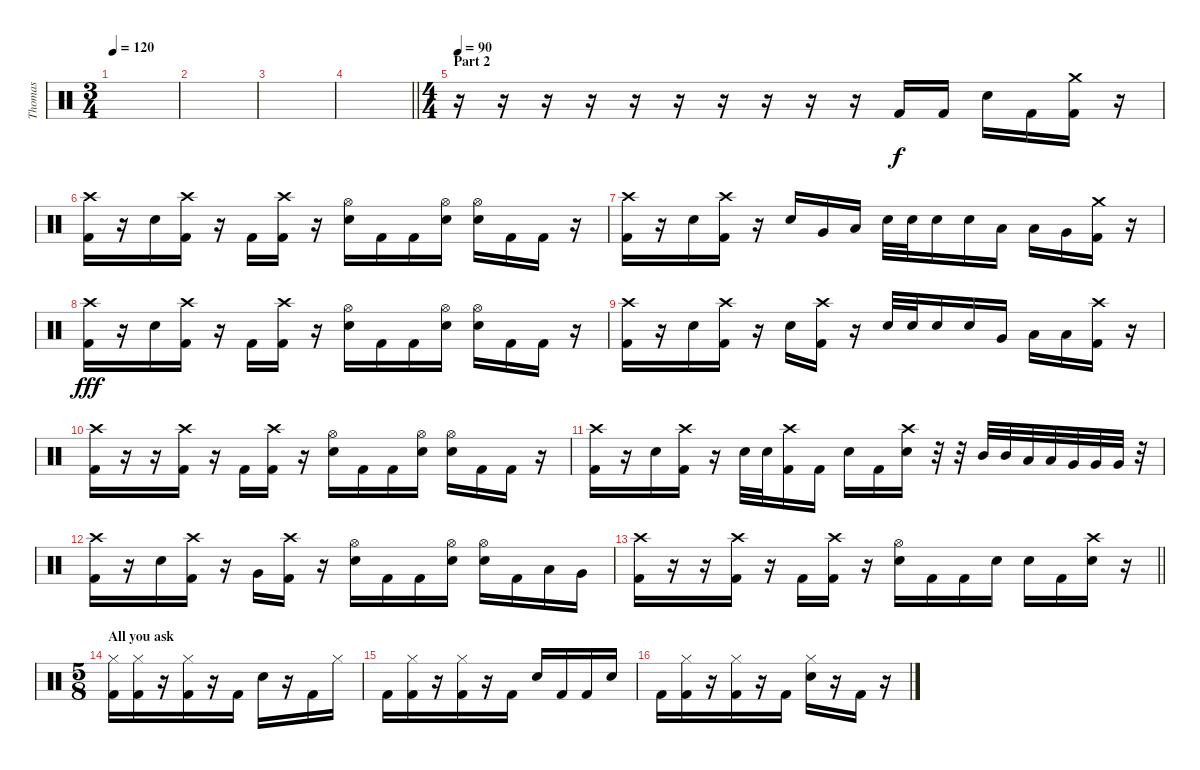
\track ("Thomas " "Thomas ") {instrument percussion}
\staff {score}
\articulation defaults
\ts (3 4)
\tempo 120
\clef neutral
\ks c
|
|
|
\barLineRight lightlight
|
\ts (4 4)
\section ("" "Part 2")
\tempo 90
r.16 r.16 r.16 r.16 r.16 r.16 r.16 r.16 r.16 r.16 "Kick (hit) 2".16 "Kick (hit) 2".16 "Electric Snare (hit)".16 "Kick (hit) 2".16 ("Crash medium (hit)" "Kick (hit) 2").16 r.16 |
("Crash high (hit)" "Kick (hit) 2").16 r.16 "Electric Snare (hit)".16 ("Crash high (hit)" "Kick (hit) 2").16 r.16 "Kick (hit) 2".16 ("Crash high (hit)" "Kick (hit) 2").16 r.16 ("Hi-Hat (open)" "Electric Snare (hit)").16 "Kick (hit) 2".16 "Kick (hit) 2".16 ("Hi-Hat (open)" "Electric Snare (hit)").16 ("Hi-Hat (open)" "Electric Snare (hit)").16 "Kick (hit) 2".16 "Kick (hit) 2".16 r.16 |
("Crash high (hit)" "Kick (hit) 2").16 r.16 "Electric Snare (hit)".16 ("Crash high (hit)" "Kick (hit) 2").16 r.16 "Electric Snare (hit)".16 "Very Low Tom (hit)".16 "Low Tom (hit)".16 "Electric Snare (hit)".32 "Electric Snare (hit)".32 "Electric Snare (hit)".16 "Electric Snare (hit)".16 "Low Tom (hit)".16 "Low Tom (hit)".16 "Very Low Tom (hit)".16 ("Crash medium (hit)" "Kick (hit) 2").16{dy f} r.16 |
("Crash high (hit)" "Kick (hit) 2").16{dy fff} r.16 "Electric Snare (hit)".16 ("Crash high (hit)" "Kick (hit) 2").16 r.16 "Kick (hit) 2".16 ("Crash high (hit)" "Kick (hit) 2").16 r.16 ("Hi-Hat (open)" "Electric Snare (hit)").16 "Kick (hit) 2".16 "Kick (hit) 2".16 ("Hi-Hat (open)" "Electric Snare (hit)").16 ("Hi-Hat (open)" "Electric Snare (hit)").16 "Kick (hit) 2".16 "Kick (hit) 2".16 r.16 |
("Crash high (hit)" "Kick (hit) 2").16 r.16 "Electric Snare (hit)".16 ("Crash high (hit)" "Kick (hit) 2").16 r.16 "Electric Snare (hit)".16 ("Crash high (hit)" "Kick (hit) 2").16 r.16 "Electric Snare (hit)".32 "Electric Snare (hit)".32 "Electric Snare (hit)".16 "Electric Snare (hit)".16 "Very Low Tom (hit)".16 "Low Tom (hit)".16 "Low Tom (hit)".16 ("Crash high (hit)" "Kick (hit) 2").16 r.16 |
("Crash high (hit)" "Kick (hit) 2").16 r.16 r.16 ("Crash high (hit)" "Kick (hit) 2").16 r.16 "Kick (hit) 2".16 ("Crash high (hit)" "Kick (hit) 2").16 r.16 ("Hi-Hat (open)" "Electric Snare (hit)").16 "Kick (hit) 2".16 "Kick (hit) 2".16 ("Hi-Hat (open)" "Electric Snare (hit)").16 ("Hi-Hat (open)" "Electric Snare (hit)").16 "Kick (hit) 2".16 "Kick (hit) 2".16 r.16 |
("Crash high (hit)" "Kick (hit) 2").16 r.16 "Electric Snare (hit)".16 ("Crash high (hit)" "Kick (hit) 2").16 r.16 "Electric Snare (hit)".32 "Electric Snare (hit)".32 ("Crash high (hit)" "Kick (hit) 2").16 "Kick (hit) 2".16 "Electric Snare (hit)".16 "Kick (hit) 2".16 ("Crash high (hit)" "Electric Snare (hit)").16 r.32 r.32 "Mid Tom (hit)".32 "Mid Tom (hit)".32 "Low Tom (hit)".32 "Low Tom (hit)".32 "Very Low Tom (hit)".32 "Very Low Tom (hit)".32 "Very Low Tom (hit)".32 r.32 |
("Crash high (hit)" "Kick (hit) 2").16 r.16 "Electric Snare (hit)".16 ("Crash high (hit)" "Kick (hit) 2").16 r.16 "Very Low Tom (hit)".16 ("Crash high (hit)" "Kick (hit) 2").16 r.16 ("Hi-Hat (open)" "Electric Snare (hit)").16 "Kick (hit) 2".16 "Kick (hit) 2".16 ("Hi-Hat (open)" "Electric Snare (hit)").16 ("Hi-Hat (open)" "Electric Snare (hit)").16 "Kick (hit) 2".16 "Low Tom (hit)".16 "Very Low Tom (hit)".16 |
\barLineRight lightlight
("Crash high (hit)" "Kick (hit) 2").16 r.16 r.16 ("Crash high (hit)" "Kick (hit) 2").16 r.16 "Kick (hit) 2".16 ("Crash high (hit)" "Kick (hit) 2").16 r.16 ("Hi-Hat (open)" "Electric Snare (hit)").16 "Kick (hit) 2".16 "Kick (hit) 2".16 "Electric Snare (hit)".16 "Electric Snare (hit)".16 "Kick (hit) 2".16 ("Crash high (hit)" "Electric Snare (hit)").16 r.16 |
\ts (5 8)
\section ("" "All you ask")
("Hi-Hat (closed)" "Kick (hit) 2").16 ("Hi-Hat (closed)" "Kick (hit) 2").16 r.16 ("Hi-Hat (closed)" "Kick (hit) 2").16 r.16 "Kick (hit) 2".16 "Electric Snare (hit)".16 r.16 "Kick (hit) 2".16 "Hi-Hat (closed)".16 |
"Kick (hit) 2".16 ("Hi-Hat (closed)" "Kick (hit) 2").16 r.16 ("Hi-Hat (closed)" "Kick (hit) 2").16 r.16 "Kick (hit) 2".16 "Electric Snare (hit)".16 "Kick (hit) 2".16 "Kick (hit) 2".16 "Electric Snare (hit)".16 |
"Kick (hit) 2".16 ("Hi-Hat (closed)" "Kick (hit) 2").16 r.16 ("Hi-Hat (closed)" "Kick (hit) 2").16 r.16 "Kick (hit) 2".16 ("Hi-Hat (closed)" "Electric Snare (hit)").16 r.16 "Kick (hit) 2".16 r.16
